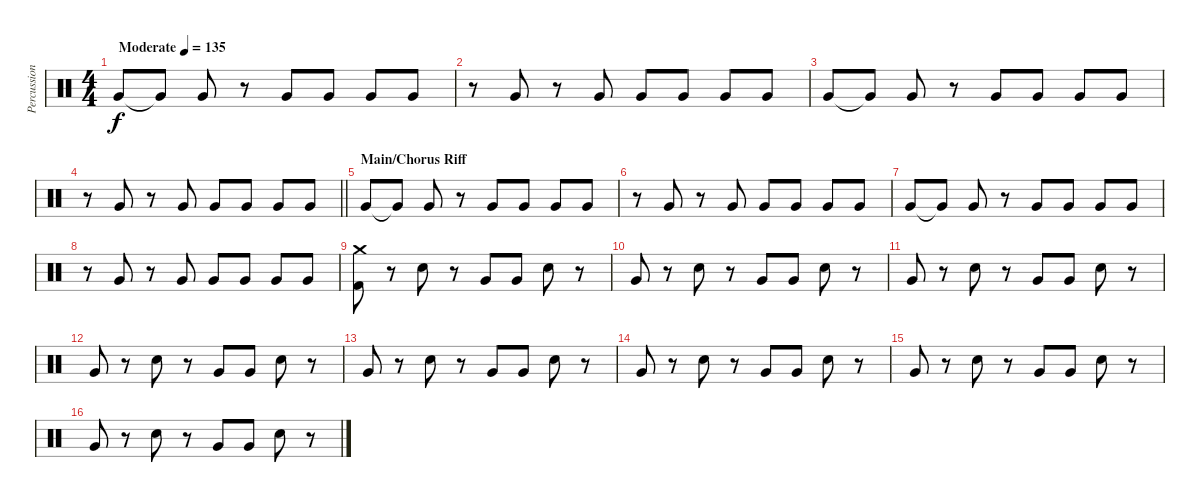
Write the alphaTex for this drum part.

\track ("Percussion" "Percussion") {instrument percussion}
\staff {score}
\articulation defaults
\ts (4 4)
\tempo (135 "Moderate")
\clef neutral
\ks c "Very Low Tom (hit)".8{dy f volume 11} "Very Low Tom (hit)"{t}.8 "Very Low Tom (hit)".8
r.8 "Very Low Tom (hit)".8 "Very Low Tom (hit)".8 "Very Low Tom (hit)".8 "Very Low Tom (hit)".8 |
r.8 "Very Low Tom (hit)".8 r.8 "Very Low Tom (hit)".8 "Very Low Tom (hit)".8 "Very Low Tom (hit)".8 "Very Low Tom (hit)".8 "Very Low Tom (hit)".8 |
"Very Low Tom (hit)".8 "Very Low Tom (hit)"{t}.8 "Very Low Tom (hit)".8 r.8 "Very Low Tom (hit)".8 "Very Low Tom (hit)".8 "Very Low Tom (hit)".8 "Very Low Tom (hit)".8 |
\barLineRight lightlight
r.8 "Very Low Tom (hit)".8 r.8 "Very Low Tom (hit)".8 "Very Low Tom (hit)".8 "Very Low Tom (hit)".8 "Very Low Tom (hit)".8 "Very Low Tom (hit)".8 |
\section ("" "Main/Chorus Riff")
"Very Low Tom (hit)".8{volume 11} "Very Low Tom (hit)"{t}.8 "Very Low Tom (hit)".8 r.8 "Very Low Tom (hit)".8 "Very Low Tom (hit)".8 "Very Low Tom (hit)".8 "Very Low Tom (hit)".8 |
r.8 "Very Low Tom (hit)".8 r.8 "Very Low Tom (hit)".8 "Very Low Tom (hit)".8 "Very Low Tom (hit)".8 "Very Low Tom (hit)".8 "Very Low Tom (hit)".8 |
"Very Low Tom (hit)".8 "Very Low Tom (hit)"{t}.8 "Very Low Tom (hit)".8 r.8 "Very Low Tom (hit)".8 "Very Low Tom (hit)".8 "Very Low Tom (hit)".8 "Very Low Tom (hit)".8 |
r.8 "Very Low Tom (hit)".8 r.8 "Very Low Tom (hit)".8 "Very Low Tom (hit)".8 "Very Low Tom (hit)".8 "Very Low Tom (hit)".8 "Very Low Tom (hit)".8 |
("Crash medium (hit)" "Kick (hit) 2").8{volume 16} r.8 "Electric Snare (hit)".8 r.8 "Very Low Tom (hit)".8 "Very Low Tom (hit)".8 "Electric Snare (hit)".8 r.8 |
"Very Low Tom (hit)".8 r.8 "Electric Snare (hit)".8 r.8 "Very Low Tom (hit)".8 "Very Low Tom (hit)".8 "Electric Snare (hit)".8 r.8 |
"Very Low Tom (hit)".8 r.8 "Electric Snare (hit)".8 r.8 "Very Low Tom (hit)".8 "Very Low Tom (hit)".8 "Electric Snare (hit)".8 r.8 |
"Very Low Tom (hit)".8 r.8 "Electric Snare (hit)".8 r.8 "Very Low Tom (hit)".8 "Very Low Tom (hit)".8 "Electric Snare (hit)".8 r.8 |
"Very Low Tom (hit)".8 r.8 "Electric Snare (hit)".8 r.8 "Very Low Tom (hit)".8 "Very Low Tom (hit)".8 "Electric Snare (hit)".8 r.8 |
"Very Low Tom (hit)".8 r.8 "Electric Snare (hit)".8 r.8 "Very Low Tom (hit)".8 "Very Low Tom (hit)".8 "Electric Snare (hit)".8 r.8 |
"Very Low Tom (hit)".8 r.8 "Electric Snare (hit)".8 r.8 "Very Low Tom (hit)".8 "Very Low Tom (hit)".8 "Electric Snare (hit)".8 r.8 |
"Very Low Tom (hit)".8 r.8 "Electric Snare (hit)".8 r.8 "Very Low Tom (hit)".8 "Very Low Tom (hit)".8 "Electric Snare (hit)".8 r.8
